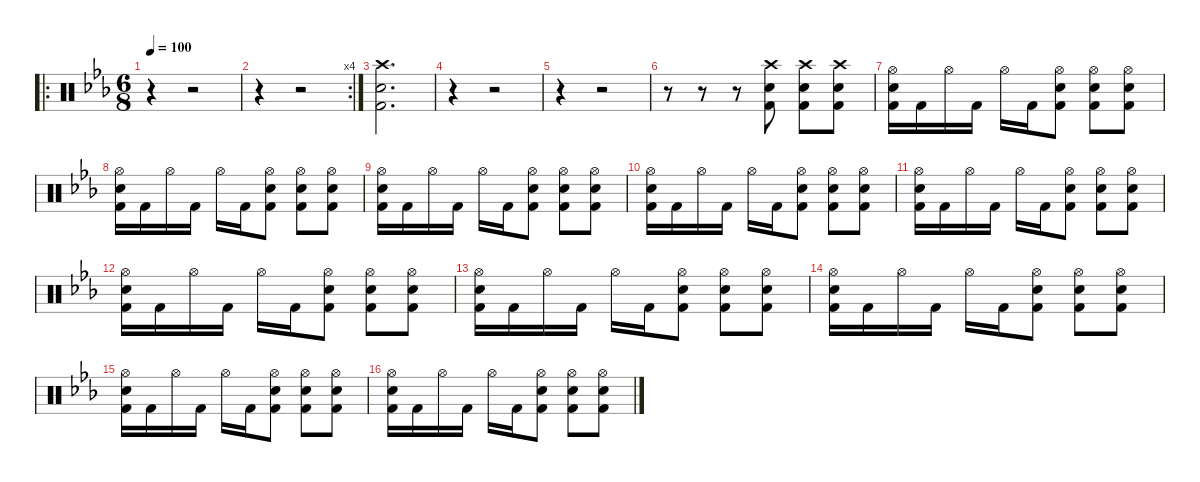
\defaultSystemsLayout 4
\hideDynamics
\bracketExtendMode nobrackets
\singleTrackTrackNamePolicy hidden
\multiTrackTrackNamePolicy hidden
\firstSystemTrackNameMode fullname
\firstSystemTrackNameOrientation horizontal
\otherSystemsTrackNameOrientation horizontal
\track ("Drums" "drm.") {instrument percussion}
\staff {score}
\articulation defaults
\ro
\ts (6 8)
\beaming (8 2 2 2 2)
\tempo 100
\clef neutral
\ks eb
r.4{dy f beam Down} r.2{beam Down} |
\rc 4
r.4{beam Down} r.2{beam Down} |
("Crash high (hit)"{acc forcenatural} "Snare (hit) 2"{acc forcenatural} "Kick (hit) 2"{acc forcenatural}).2{d beam Down} |
r.4{beam Down} r.2{beam Down} |
r.4{beam Down} r.2{beam Down} |
r.8{beam Down} r.8{beam Down} r.8{beam Down} ("Crash high (hit)"{acc forcenatural} "Snare (hit) 2"{acc forcenatural} "Kick (hit) 2"{acc forcenatural}).8{beam Down} ("Crash high (hit)"{acc forcenatural} "Snare (hit) 2"{acc forcenatural} "Kick (hit) 2"{acc forcenatural}).8{beam Down} ("Crash high (hit)"{acc forcenatural} "Snare (hit) 2"{acc forcenatural} "Kick (hit) 2"{acc forcenatural}).8{beam Down} |
("Hi-Hat (open)"{acc forcenatural} "Snare (hit) 2"{acc forcenatural} "Kick (hit) 2"{acc forcenatural}).16{beam Down} "Kick (hit) 2"{acc forcenatural}.16{beam Down} "Hi-Hat (open)"{acc forcenatural}.16{beam Down} "Kick (hit) 2"{acc forcenatural}.16{beam Down} "Hi-Hat (open)"{acc forcenatural}.16{beam Down} "Kick (hit) 2"{acc forcenatural}.16{beam Down} ("Hi-Hat (open)"{acc forcenatural} "Snare (hit) 2"{acc forcenatural} "Kick (hit) 2"{acc forcenatural}).8{beam Down} ("Hi-Hat (open)"{acc forcenatural} "Snare (hit) 2"{acc forcenatural} "Kick (hit) 2"{acc forcenatural}).8{beam Down} ("Hi-Hat (open)"{acc forcenatural} "Snare (hit) 2"{acc forcenatural} "Kick (hit) 2"{acc forcenatural}).8{beam Down} |
("Hi-Hat (open)"{acc forcenatural} "Snare (hit) 2"{acc forcenatural} "Kick (hit) 2"{acc forcenatural}).16{beam Down} "Kick (hit) 2"{acc forcenatural}.16{beam Down} "Hi-Hat (open)"{acc forcenatural}.16{beam Down} "Kick (hit) 2"{acc forcenatural}.16{beam Down} "Hi-Hat (open)"{acc forcenatural}.16{beam Down} "Kick (hit) 2"{acc forcenatural}.16{beam Down} ("Hi-Hat (open)"{acc forcenatural} "Snare (hit) 2"{acc forcenatural} "Kick (hit) 2"{acc forcenatural}).8{beam Down} ("Hi-Hat (open)"{acc forcenatural} "Snare (hit) 2"{acc forcenatural} "Kick (hit) 2"{acc forcenatural}).8{beam Down} ("Hi-Hat (open)"{acc forcenatural} "Snare (hit) 2"{acc forcenatural} "Kick (hit) 2"{acc forcenatural}).8{beam Down} |
("Hi-Hat (open)"{acc forcenatural} "Snare (hit) 2"{acc forcenatural} "Kick (hit) 2"{acc forcenatural}).16{beam Down} "Kick (hit) 2"{acc forcenatural}.16{beam Down} "Hi-Hat (open)"{acc forcenatural}.16{beam Down} "Kick (hit) 2"{acc forcenatural}.16{beam Down} "Hi-Hat (open)"{acc forcenatural}.16{beam Down} "Kick (hit) 2"{acc forcenatural}.16{beam Down} ("Hi-Hat (open)"{acc forcenatural} "Snare (hit) 2"{acc forcenatural} "Kick (hit) 2"{acc forcenatural}).8{beam Down} ("Hi-Hat (open)"{acc forcenatural} "Snare (hit) 2"{acc forcenatural} "Kick (hit) 2"{acc forcenatural}).8{beam Down} ("Hi-Hat (open)"{acc forcenatural} "Snare (hit) 2"{acc forcenatural} "Kick (hit) 2"{acc forcenatural}).8{beam Down} |
("Hi-Hat (open)"{acc forcenatural} "Snare (hit) 2"{acc forcenatural} "Kick (hit) 2"{acc forcenatural}).16{beam Down} "Kick (hit) 2"{acc forcenatural}.16{beam Down} "Hi-Hat (open)"{acc forcenatural}.16{beam Down} "Kick (hit) 2"{acc forcenatural}.16{beam Down} "Hi-Hat (open)"{acc forcenatural}.16{beam Down} "Kick (hit) 2"{acc forcenatural}.16{beam Down} ("Hi-Hat (open)"{acc forcenatural} "Snare (hit) 2"{acc forcenatural} "Kick (hit) 2"{acc forcenatural}).8{beam Down} ("Hi-Hat (open)"{acc forcenatural} "Snare (hit) 2"{acc forcenatural} "Kick (hit) 2"{acc forcenatural}).8{beam Down} ("Hi-Hat (open)"{acc forcenatural} "Snare (hit) 2"{acc forcenatural} "Kick (hit) 2"{acc forcenatural}).8{beam Down} |
("Hi-Hat (open)"{acc forcenatural} "Snare (hit) 2"{acc forcenatural} "Kick (hit) 2"{acc forcenatural}).16{beam Down} "Kick (hit) 2"{acc forcenatural}.16{beam Down} "Hi-Hat (open)"{acc forcenatural}.16{beam Down} "Kick (hit) 2"{acc forcenatural}.16{beam Down} "Hi-Hat (open)"{acc forcenatural}.16{beam Down} "Kick (hit) 2"{acc forcenatural}.16{beam Down} ("Hi-Hat (open)"{acc forcenatural} "Snare (hit) 2"{acc forcenatural} "Kick (hit) 2"{acc forcenatural}).8{beam Down} ("Hi-Hat (open)"{acc forcenatural} "Snare (hit) 2"{acc forcenatural} "Kick (hit) 2"{acc forcenatural}).8{beam Down} ("Hi-Hat (open)"{acc forcenatural} "Snare (hit) 2"{acc forcenatural} "Kick (hit) 2"{acc forcenatural}).8{beam Down} |
("Hi-Hat (open)"{acc forcenatural} "Snare (hit) 2"{acc forcenatural} "Kick (hit) 2"{acc forcenatural}).16{beam Down} "Kick (hit) 2"{acc forcenatural}.16{beam Down} "Hi-Hat (open)"{acc forcenatural}.16{beam Down} "Kick (hit) 2"{acc forcenatural}.16{beam Down} "Hi-Hat (open)"{acc forcenatural}.16{beam Down} "Kick (hit) 2"{acc forcenatural}.16{beam Down} ("Hi-Hat (open)"{acc forcenatural} "Snare (hit) 2"{acc forcenatural} "Kick (hit) 2"{acc forcenatural}).8{beam Down} ("Hi-Hat (open)"{acc forcenatural} "Snare (hit) 2"{acc forcenatural} "Kick (hit) 2"{acc forcenatural}).8{beam Down} ("Hi-Hat (open)"{acc forcenatural} "Snare (hit) 2"{acc forcenatural} "Kick (hit) 2"{acc forcenatural}).8{beam Down} |
("Hi-Hat (open)"{acc forcenatural} "Snare (hit) 2"{acc forcenatural} "Kick (hit) 2"{acc forcenatural}).16{beam Down} "Kick (hit) 2"{acc forcenatural}.16{beam Down} "Hi-Hat (open)"{acc forcenatural}.16{beam Down} "Kick (hit) 2"{acc forcenatural}.16{beam Down} "Hi-Hat (open)"{acc forcenatural}.16{beam Down} "Kick (hit) 2"{acc forcenatural}.16{beam Down} ("Hi-Hat (open)"{acc forcenatural} "Snare (hit) 2"{acc forcenatural} "Kick (hit) 2"{acc forcenatural}).8{beam Down} ("Hi-Hat (open)"{acc forcenatural} "Snare (hit) 2"{acc forcenatural} "Kick (hit) 2"{acc forcenatural}).8{beam Down} ("Hi-Hat (open)"{acc forcenatural} "Snare (hit) 2"{acc forcenatural} "Kick (hit) 2"{acc forcenatural}).8{beam Down} |
("Hi-Hat (open)"{acc forcenatural} "Snare (hit) 2"{acc forcenatural} "Kick (hit) 2"{acc forcenatural}).16{beam Down} "Kick (hit) 2"{acc forcenatural}.16{beam Down} "Hi-Hat (open)"{acc forcenatural}.16{beam Down} "Kick (hit) 2"{acc forcenatural}.16{beam Down} "Hi-Hat (open)"{acc forcenatural}.16{beam Down} "Kick (hit) 2"{acc forcenatural}.16{beam Down} ("Hi-Hat (open)"{acc forcenatural} "Snare (hit) 2"{acc forcenatural} "Kick (hit) 2"{acc forcenatural}).8{beam Down} ("Hi-Hat (open)"{acc forcenatural} "Snare (hit) 2"{acc forcenatural} "Kick (hit) 2"{acc forcenatural}).8{beam Down} ("Hi-Hat (open)"{acc forcenatural} "Snare (hit) 2"{acc forcenatural} "Kick (hit) 2"{acc forcenatural}).8{beam Down} |
("Hi-Hat (open)"{acc forcenatural} "Snare (hit) 2"{acc forcenatural} "Kick (hit) 2"{acc forcenatural}).16{beam Down} "Kick (hit) 2"{acc forcenatural}.16{beam Down} "Hi-Hat (open)"{acc forcenatural}.16{beam Down} "Kick (hit) 2"{acc forcenatural}.16{beam Down} "Hi-Hat (open)"{acc forcenatural}.16{beam Down} "Kick (hit) 2"{acc forcenatural}.16{beam Down} ("Hi-Hat (open)"{acc forcenatural} "Snare (hit) 2"{acc forcenatural} "Kick (hit) 2"{acc forcenatural}).8{beam Down} ("Hi-Hat (open)"{acc forcenatural} "Snare (hit) 2"{acc forcenatural} "Kick (hit) 2"{acc forcenatural}).8{beam Down} ("Hi-Hat (open)"{acc forcenatural} "Snare (hit) 2"{acc forcenatural} "Kick (hit) 2"{acc forcenatural}).8{beam Down} |
("Hi-Hat (open)"{acc forcenatural} "Snare (hit) 2"{acc forcenatural} "Kick (hit) 2"{acc forcenatural}).16{beam Down} "Kick (hit) 2"{acc forcenatural}.16{beam Down} "Hi-Hat (open)"{acc forcenatural}.16{beam Down} "Kick (hit) 2"{acc forcenatural}.16{beam Down} "Hi-Hat (open)"{acc forcenatural}.16{beam Down} "Kick (hit) 2"{acc forcenatural}.16{beam Down} ("Hi-Hat (open)"{acc forcenatural} "Snare (hit) 2"{acc forcenatural} "Kick (hit) 2"{acc forcenatural}).8{beam Down} ("Hi-Hat (open)"{acc forcenatural} "Snare (hit) 2"{acc forcenatural} "Kick (hit) 2"{acc forcenatural}).8{beam Down} ("Hi-Hat (open)"{acc forcenatural} "Snare (hit) 2"{acc forcenatural} "Kick (hit) 2"{acc forcenatural}).8{beam Down}
